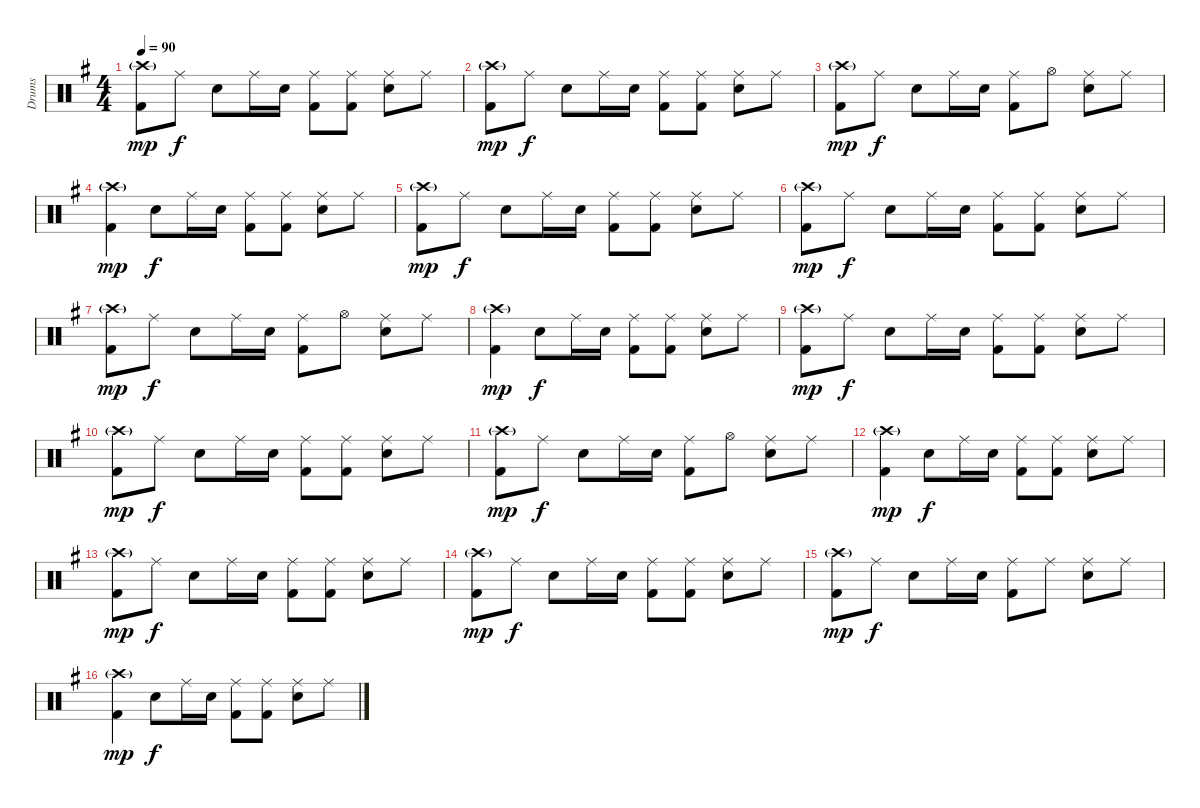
\track ("Drums" "Drums") {instrument percussion}
\staff {score}
\articulation defaults
\ts (4 4)
\tempo 90
\clef neutral
\ks g
("Crash high (hit)"{g} "Kick (hit) 2").8{dy mp} "Ride (middle)".8{dy f} "Snare (hit) 2".8 "Ride (middle)".16 "Snare (hit) 2".16 ("Ride (middle)" "Kick (hit) 2").8 ("Ride (middle)" "Kick (hit) 2").8 ("Ride (middle)" "Snare (hit) 2").8 "Ride (middle)".8 |
("Crash high (hit)"{g} "Kick (hit) 2").8{dy mp} "Ride (middle)".8{dy f} "Snare (hit) 2".8 "Ride (middle)".16 "Snare (hit) 2".16 ("Ride (middle)" "Kick (hit) 2").8 ("Ride (middle)" "Kick (hit) 2").8 ("Ride (middle)" "Snare (hit) 2").8 "Ride (middle)".8 |
("Crash high (hit)"{g} "Kick (hit) 2").8{dy mp} "Ride (middle)".8{dy f} "Snare (hit) 2".8 "Ride (middle)".16 "Snare (hit) 2".16 ("Ride (middle)" "Kick (hit) 2").8 "Hi-Hat (open)".8 ("Ride (middle)" "Snare (hit) 2").8 "Ride (middle)".8 |
("Crash high (hit)"{g} "Kick (hit) 2").4{dy mp} "Snare (hit) 2".8{dy f} "Ride (middle)".16 "Snare (hit) 2".16 ("Ride (middle)" "Kick (hit) 2").8 ("Ride (middle)" "Kick (hit) 2").8 ("Ride (middle)" "Snare (hit) 2").8 "Ride (middle)".8 |
("Crash high (hit)"{g} "Kick (hit) 2").8{dy mp} "Ride (middle)".8{dy f} "Snare (hit) 2".8 "Ride (middle)".16 "Snare (hit) 2".16 ("Ride (middle)" "Kick (hit) 2").8 ("Ride (middle)" "Kick (hit) 2").8 ("Ride (middle)" "Snare (hit) 2").8 "Ride (middle)".8 |
("Crash high (hit)"{g} "Kick (hit) 2").8{dy mp} "Ride (middle)".8{dy f} "Snare (hit) 2".8 "Ride (middle)".16 "Snare (hit) 2".16 ("Ride (middle)" "Kick (hit) 2").8 ("Ride (middle)" "Kick (hit) 2").8 ("Ride (middle)" "Snare (hit) 2").8 "Ride (middle)".8 |
("Crash high (hit)"{g} "Kick (hit) 2").8{dy mp} "Ride (middle)".8{dy f} "Snare (hit) 2".8 "Ride (middle)".16 "Snare (hit) 2".16 ("Ride (middle)" "Kick (hit) 2").8 "Hi-Hat (open)".8 ("Ride (middle)" "Snare (hit) 2").8 "Ride (middle)".8 |
("Crash high (hit)"{g} "Kick (hit) 2").4{dy mp} "Snare (hit) 2".8{dy f} "Ride (middle)".16 "Snare (hit) 2".16 ("Ride (middle)" "Kick (hit) 2").8 ("Ride (middle)" "Kick (hit) 2").8 ("Ride (middle)" "Snare (hit) 2").8 "Ride (middle)".8 |
("Crash high (hit)"{g} "Kick (hit) 2").8{dy mp} "Ride (middle)".8{dy f} "Snare (hit) 2".8 "Ride (middle)".16 "Snare (hit) 2".16 ("Ride (middle)" "Kick (hit) 2").8 ("Ride (middle)" "Kick (hit) 2").8 ("Ride (middle)" "Snare (hit) 2").8 "Ride (middle)".8 |
("Crash high (hit)"{g} "Kick (hit) 2").8{dy mp} "Ride (middle)".8{dy f} "Snare (hit) 2".8 "Ride (middle)".16 "Snare (hit) 2".16 ("Ride (middle)" "Kick (hit) 2").8 ("Ride (middle)" "Kick (hit) 2").8 ("Ride (middle)" "Snare (hit) 2").8 "Ride (middle)".8 |
("Crash high (hit)"{g} "Kick (hit) 2").8{dy mp} "Ride (middle)".8{dy f} "Snare (hit) 2".8 "Ride (middle)".16 "Snare (hit) 2".16 ("Ride (middle)" "Kick (hit) 2").8 "Hi-Hat (open)".8 ("Ride (middle)" "Snare (hit) 2").8 "Ride (middle)".8 |
("Crash high (hit)"{g} "Kick (hit) 2").4{dy mp} "Snare (hit) 2".8{dy f} "Ride (middle)".16 "Snare (hit) 2".16 ("Ride (middle)" "Kick (hit) 2").8 ("Ride (middle)" "Kick (hit) 2").8 ("Ride (middle)" "Snare (hit) 2").8 "Ride (middle)".8 |
("Crash high (hit)"{g} "Kick (hit) 2").8{dy mp} "Ride (middle)".8{dy f} "Snare (hit) 2".8 "Ride (middle)".16 "Snare (hit) 2".16 ("Ride (middle)" "Kick (hit) 2").8 ("Ride (middle)" "Kick (hit) 2").8 ("Ride (middle)" "Snare (hit) 2").8 "Ride (middle)".8 |
("Crash high (hit)"{g} "Kick (hit) 2").8{dy mp} "Ride (middle)".8{dy f} "Snare (hit) 2".8 "Ride (middle)".16 "Snare (hit) 2".16 ("Ride (middle)" "Kick (hit) 2").8 ("Ride (middle)" "Kick (hit) 2").8 ("Ride (middle)" "Snare (hit) 2").8 "Ride (middle)".8 |
("Crash high (hit)"{g} "Kick (hit) 2").8{dy mp} "Ride (middle)".8{dy f} "Snare (hit) 2".8 "Ride (middle)".16 "Snare (hit) 2".16 ("Ride (middle)" "Kick (hit) 2").8 "Ride (middle)".8 ("Ride (middle)" "Snare (hit) 2").8 "Ride (middle)".8 |
("Crash high (hit)"{g} "Kick (hit) 2").4{dy mp} "Snare (hit) 2".8{dy f} "Ride (middle)".16 "Snare (hit) 2".16 ("Ride (middle)" "Kick (hit) 2").8 ("Ride (middle)" "Kick (hit) 2").8 ("Ride (middle)" "Snare (hit) 2").8 "Ride (middle)".8
